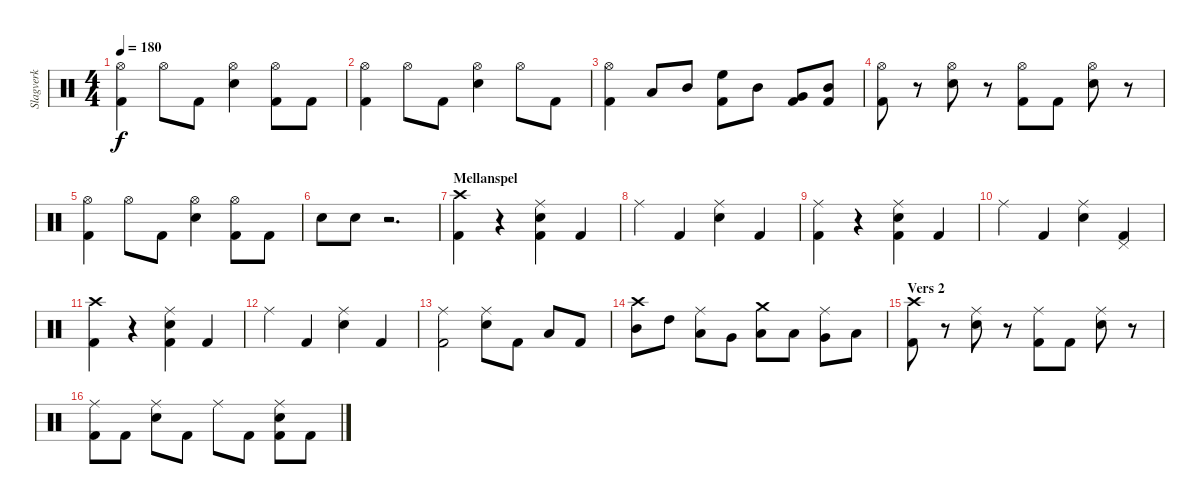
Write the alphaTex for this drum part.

\track ("Slagverk" "Slagverk") {instrument percussion}
\staff {score}
\articulation defaults
\ts (4 4)
\tempo 180
\clef neutral
\ks c
("Kick (hit) 2" "Hi-Hat (open)").4{dy f} "Hi-Hat (open)".8 "Kick (hit) 2".8 ("Snare (hit) 2" "Hi-Hat (open)").4 ("Kick (hit) 2" "Hi-Hat (open)").8 "Kick (hit) 2".8 |
("Kick (hit) 2" "Hi-Hat (open)").4 "Hi-Hat (open)".8 "Kick (hit) 2".8 ("Snare (hit) 2" "Hi-Hat (open)").4 "Hi-Hat (open)".8 "Kick (hit) 2".8 |
("Kick (hit) 2" "Hi-Hat (open)").4 "Low Tom (hit)".8 "Mid Tom (hit)".8 ("Kick (hit) 2" "High Floor Tom (hit)").8 "Mid Tom (hit)".8 ("Kick (hit) 2" "Very Low Tom (hit)").8 ("Kick (hit) 2" "Mid Tom (hit)").8 |
("Kick (hit) 2" "Hi-Hat (open)").8 r.8 ("Snare (hit) 2" "Hi-Hat (open)").8 r.8 ("Kick (hit) 2" "Hi-Hat (open)").8 "Kick (hit) 2".8 ("Snare (hit) 2" "Hi-Hat (open)").8 r.8 |
("Kick (hit) 2" "Hi-Hat (open)").4 "Hi-Hat (open)".8 "Kick (hit) 2".8 ("Snare (hit) 2" "Hi-Hat (open)").4 ("Kick (hit) 2" "Hi-Hat (open)").8 "Kick (hit) 2".8 |
"Snare (hit) 2".8 "Snare (hit) 2".8 r.2{d} |
\section ("" "Mellanspel")
("Kick (hit) 2" "Crash high (hit)").4 r.4 ("Kick (hit) 2" "Snare (hit) 2" "Ride (middle)").4 "Kick (hit) 2".4 |
"Ride (middle)".4 "Kick (hit) 2".4 ("Snare (hit) 2" "Ride (middle)").4 "Kick (hit) 2".4 |
("Kick (hit) 2" "Ride (middle)").4 r.4 ("Kick (hit) 2" "Snare (hit) 2" "Ride (middle)").4 "Kick (hit) 2".4 |
"Ride (middle)".4 "Kick (hit) 2".4 ("Snare (hit) 2" "Ride (middle)").4 ("Kick (hit) 2" "Pedal Hi-Hat (hit)").4 |
("Kick (hit) 2" "Crash high (hit)").4 r.4 ("Kick (hit) 2" "Snare (hit) 2" "Ride (middle)").4 "Kick (hit) 2".4 |
"Ride (middle)".4 "Kick (hit) 2".4 ("Snare (hit) 2" "Ride (middle)").4 "Kick (hit) 2".4 |
("Kick (hit) 2" "Ride (middle)").2 ("Snare (hit) 2" "Ride (middle)").8 "Kick (hit) 2".8 "Low Floor Tom (hit)".8 "Kick (hit) 2".8 |
("Mid Tom (hit)" "Crash high (hit)").8 "High Tom (hit)".8 ("Low Tom (hit)" "Ride (middle)").8 "Very Low Tom (hit)".8 ("Low Floor Tom (hit)" "Crash medium (hit)").8 "Low Tom (hit)".8 ("Very Low Tom (hit)" "Ride (middle)").8 "Low Floor Tom (hit)".8 |
\section ("" "Vers 2")
("Kick (hit) 2" "Crash high (hit)").8 r.8 ("Snare (hit) 2" "Ride (middle)").8 r.8 ("Kick (hit) 2" "Ride (middle)").8 "Kick (hit) 2".8 ("Snare (hit) 2" "Ride (middle)").8 r.8 |
("Kick (hit) 2" "Ride (middle)").8 "Kick (hit) 2".8 ("Snare (hit) 2" "Ride (middle)").8 "Kick (hit) 2".8 "Ride (middle)".8 "Kick (hit) 2".8 ("Kick (hit) 2" "Snare (hit) 2" "Ride (middle)").8 "Kick (hit) 2".8
